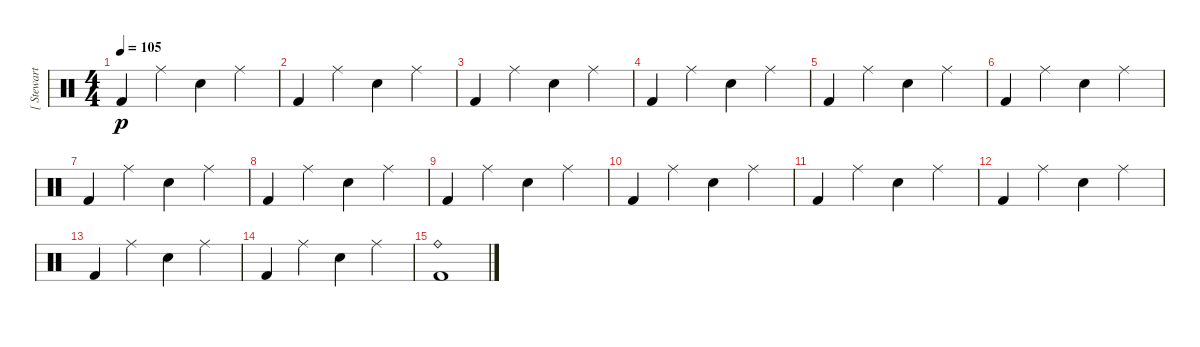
\track ("[ Stewart ]" "[ Stewart ") {instrument percussion}
\staff {score}
\articulation defaults
\ts (4 4)
\tempo 105
\clef neutral
\ks c "Kick (hit) 2".4{dy p} "Ride (middle)".4 "Electric Snare (hit)".4 "Ride (middle)".4
|
"Kick (hit) 2".4 "Ride (middle)".4 "Electric Snare (hit)".4 "Ride (middle)".4 |
"Kick (hit) 2".4 "Ride (middle)".4 "Electric Snare (hit)".4 "Ride (middle)".4 |
"Kick (hit) 2".4 "Ride (middle)".4 "Electric Snare (hit)".4 "Ride (middle)".4 |
"Kick (hit) 2".4 "Ride (middle)".4 "Electric Snare (hit)".4 "Ride (middle)".4 |
"Kick (hit) 2".4 "Ride (middle)".4 "Electric Snare (hit)".4 "Ride (middle)".4 |
"Kick (hit) 2".4 "Ride (middle)".4 "Electric Snare (hit)".4 "Ride (middle)".4 |
"Kick (hit) 2".4 "Ride (middle)".4 "Electric Snare (hit)".4 "Ride (middle)".4 |
"Kick (hit) 2".4 "Ride (middle)".4 "Electric Snare (hit)".4 "Ride (middle)".4 |
"Kick (hit) 2".4 "Ride (middle)".4 "Electric Snare (hit)".4 "Ride (middle)".4 |
"Kick (hit) 2".4 "Ride (middle)".4 "Electric Snare (hit)".4 "Ride (middle)".4 |
"Kick (hit) 2".4 "Ride (middle)".4 "Electric Snare (hit)".4 "Ride (middle)".4 |
"Kick (hit) 2".4 "Ride (middle)".4 "Electric Snare (hit)".4 "Ride (middle)".4 |
"Kick (hit) 2".4 "Ride (middle)".4 "Electric Snare (hit)".4 "Ride (middle)".4 |
("Kick (hit) 2" "Ride (bell)").1
